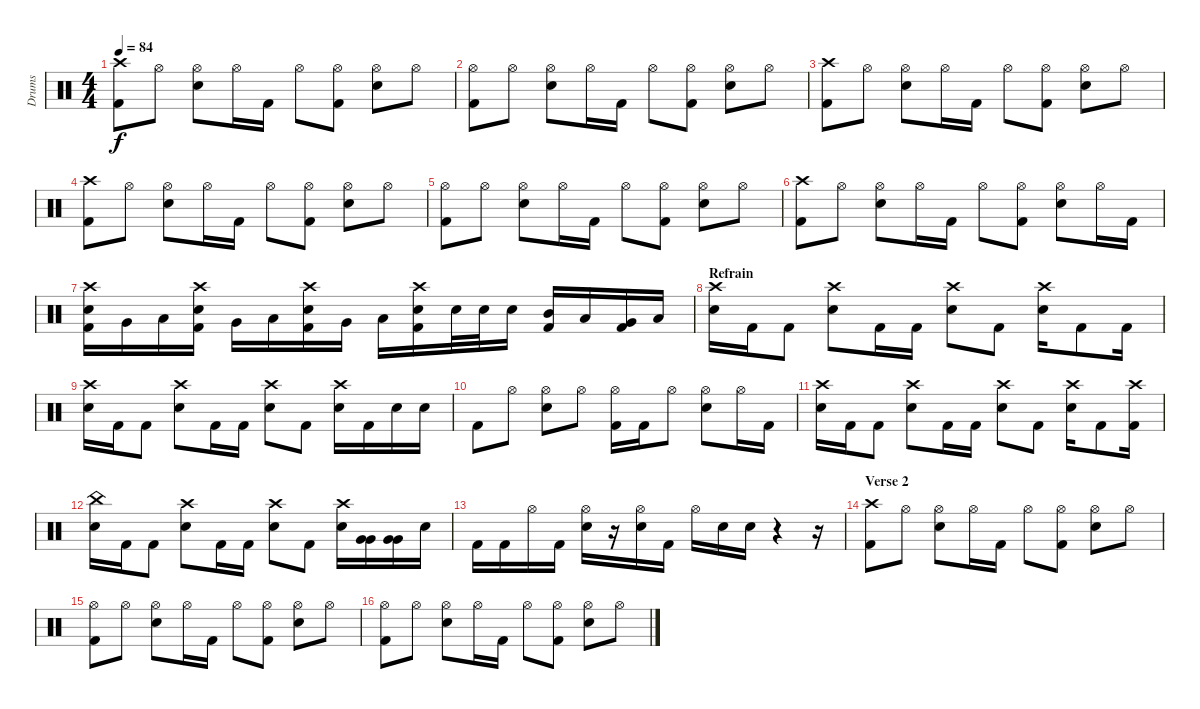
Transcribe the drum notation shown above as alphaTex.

\track ("Drums" "Drums") {instrument percussion}
\staff {score}
\articulation defaults
\ts (4 4)
\tempo 84
\clef neutral
\ks c
("Crash high (hit)" "Kick (hit) 2").8{dy f} "Hi-Hat (open)".8 ("Hi-Hat (open)" "Snare (hit) 2").8 "Hi-Hat (open)".16 "Kick (hit) 2".16 "Hi-Hat (open)".8 ("Hi-Hat (open)" "Kick (hit) 2").8 ("Hi-Hat (open)" "Snare (hit) 2").8 "Hi-Hat (open)".8 |
("Hi-Hat (open)" "Kick (hit) 2").8 "Hi-Hat (open)".8 ("Hi-Hat (open)" "Snare (hit) 2").8 "Hi-Hat (open)".16 "Kick (hit) 2".16 "Hi-Hat (open)".8 ("Hi-Hat (open)" "Kick (hit) 2").8 ("Hi-Hat (open)" "Snare (hit) 2").8 "Hi-Hat (open)".8 |
("Crash high (hit)" "Kick (hit) 2").8 "Hi-Hat (open)".8 ("Hi-Hat (open)" "Snare (hit) 2").8 "Hi-Hat (open)".16 "Kick (hit) 2".16 "Hi-Hat (open)".8 ("Hi-Hat (open)" "Kick (hit) 2").8 ("Hi-Hat (open)" "Snare (hit) 2").8 "Hi-Hat (open)".8 |
("Crash high (hit)" "Kick (hit) 2").8 "Hi-Hat (open)".8 ("Hi-Hat (open)" "Snare (hit) 2").8 "Hi-Hat (open)".16 "Kick (hit) 2".16 "Hi-Hat (open)".8 ("Hi-Hat (open)" "Kick (hit) 2").8 ("Hi-Hat (open)" "Snare (hit) 2").8 "Hi-Hat (open)".8 |
("Hi-Hat (open)" "Kick (hit) 2").8 "Hi-Hat (open)".8 ("Hi-Hat (open)" "Snare (hit) 2").8 "Hi-Hat (open)".16 "Kick (hit) 2".16 "Hi-Hat (open)".8 ("Hi-Hat (open)" "Kick (hit) 2").8 ("Hi-Hat (open)" "Snare (hit) 2").8 "Hi-Hat (open)".8 |
("Crash high (hit)" "Kick (hit) 2").8 "Hi-Hat (open)".8 ("Hi-Hat (open)" "Snare (hit) 2").8 "Hi-Hat (open)".16 "Kick (hit) 2".16 "Hi-Hat (open)".8 ("Hi-Hat (open)" "Kick (hit) 2").8 ("Hi-Hat (open)" "Snare (hit) 2").8 "Hi-Hat (open)".16 "Kick (hit) 2".16 |
("Crash high (hit)" "Snare (hit) 2" "Kick (hit) 2").16 "Very Low Tom (hit)".16 "Low Floor Tom (hit)".16 ("Crash high (hit)" "Snare (hit) 2" "Kick (hit) 2").16 "Very Low Tom (hit)".16 "Low Floor Tom (hit)".16 ("Crash high (hit)" "Snare (hit) 2" "Kick (hit) 2").16 "Very Low Tom (hit)".16 "Low Floor Tom (hit)".16 ("Crash high (hit)" "Snare (hit) 2" "Kick (hit) 2").16 "Snare (hit) 2".32 "Snare (hit) 2".32 "Snare (hit) 2".16 ("Mid Tom (hit)" "Kick (hit) 2").16 "Low Tom (hit)".16 ("Very Low Tom (hit)" "Kick (hit) 2").16 "Low Floor Tom (hit)".16 |
\section ("" "Refrain")
("Crash high (hit)" "Snare (hit) 2").16 "Kick (hit) 2".16 "Kick (hit) 2".8 ("Crash high (hit)" "Snare (hit) 2").8 "Kick (hit) 2".16 "Kick (hit) 2".16 ("Crash high (hit)" "Snare (hit) 2").8 "Kick (hit) 2".8 ("Crash high (hit)" "Snare (hit) 2").16 "Kick (hit) 2".8 "Kick (hit) 2".16 |
("Crash high (hit)" "Snare (hit) 2").16 "Kick (hit) 2".16 "Kick (hit) 2".8 ("Crash high (hit)" "Snare (hit) 2").8 "Kick (hit) 2".16 "Kick (hit) 2".16 ("Crash high (hit)" "Snare (hit) 2").8 "Kick (hit) 2".8 ("Crash high (hit)" "Snare (hit) 2").16 "Kick (hit) 2".16 "Snare (hit) 2".16 "Snare (hit) 2".16 |
"Kick (hit) 2".8 "Hi-Hat (open)".8 ("Hi-Hat (open)" "Snare (hit) 2").8 "Hi-Hat (open)".8 ("Hi-Hat (open)" "Kick (hit) 2").16 "Kick (hit) 2".16 "Hi-Hat (open)".8 ("Hi-Hat (open)" "Snare (hit) 2").8 "Hi-Hat (open)".16 "Kick (hit) 2".16 |
("Crash high (hit)" "Snare (hit) 2").16 "Kick (hit) 2".16 "Kick (hit) 2".8 ("Crash high (hit)" "Snare (hit) 2").8 "Kick (hit) 2".16 "Kick (hit) 2".16 ("Crash high (hit)" "Snare (hit) 2").8 "Kick (hit) 2".8 ("Crash high (hit)" "Snare (hit) 2").16 "Kick (hit) 2".8 ("Crash high (hit)" "Kick (hit) 2").16 |
("China (hit)" "Snare (hit) 2").16 "Kick (hit) 2".16 "Kick (hit) 2".8 ("Crash high (hit)" "Snare (hit) 2").8 "Kick (hit) 2".16 "Kick (hit) 2".16 ("Crash high (hit)" "Snare (hit) 2").8 "Kick (hit) 2".8 ("Crash high (hit)" "Snare (hit) 2").16 ("Very Low Tom (hit)" "Very Low Tom (hit)").16 ("Very Low Tom (hit)" "Very Low Tom (hit)").16 "Snare (hit) 2".16 |
"Kick (hit) 2".16 "Kick (hit) 2".16 "Hi-Hat (open)".16 "Kick (hit) 2".16 ("Hi-Hat (open)" "Snare (hit) 2").16 r.16 ("Hi-Hat (open)" "Snare (hit) 2").16 "Kick (hit) 2".16 "Hi-Hat (open)".16 "Snare (hit) 2".16 "Snare (hit) 2".16 r.4 r.16 |
\section ("" "Verse 2")
("Crash high (hit)" "Kick (hit) 2").8 "Hi-Hat (open)".8 ("Hi-Hat (open)" "Snare (hit) 2").8 "Hi-Hat (open)".16 "Kick (hit) 2".16 "Hi-Hat (open)".8 ("Hi-Hat (open)" "Kick (hit) 2").8 ("Hi-Hat (open)" "Snare (hit) 2").8 "Hi-Hat (open)".8 |
("Hi-Hat (open)" "Kick (hit) 2").8 "Hi-Hat (open)".8 ("Hi-Hat (open)" "Snare (hit) 2").8 "Hi-Hat (open)".16 "Kick (hit) 2".16 "Hi-Hat (open)".8 ("Hi-Hat (open)" "Kick (hit) 2").8 ("Hi-Hat (open)" "Snare (hit) 2").8 "Hi-Hat (open)".8 |
("Hi-Hat (open)" "Kick (hit) 2").8 "Hi-Hat (open)".8 ("Hi-Hat (open)" "Snare (hit) 2").8 "Hi-Hat (open)".16 "Kick (hit) 2".16 "Hi-Hat (open)".8 ("Hi-Hat (open)" "Kick (hit) 2").8 ("Hi-Hat (open)" "Snare (hit) 2").8 "Hi-Hat (open)".8
